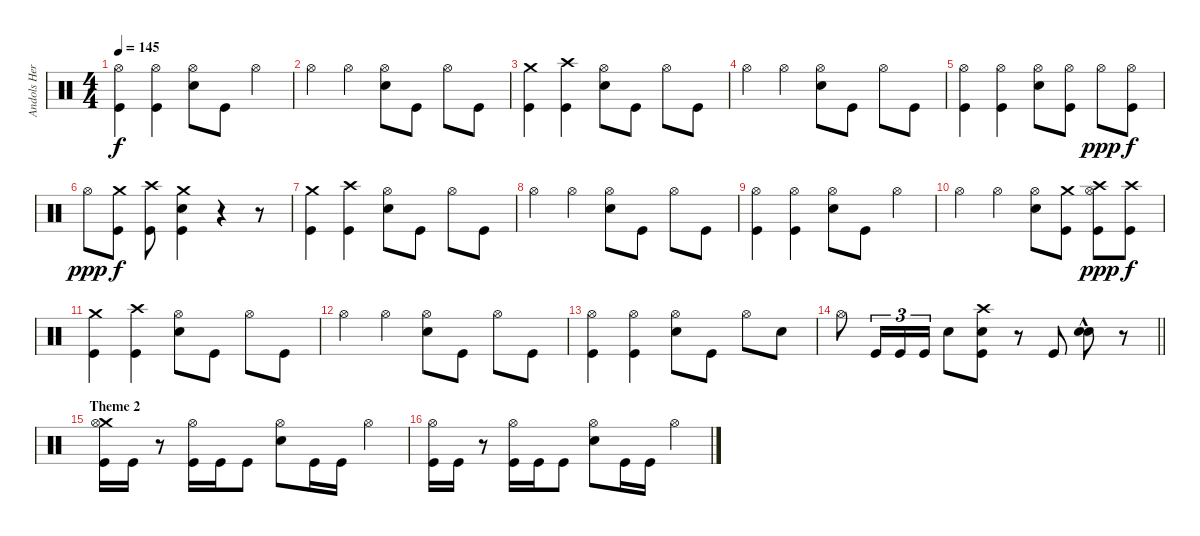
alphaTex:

\track ("Andols Herrick" "Andols Her") {instrument percussion}
\staff
\articulation defaults
\ts (4 4)
\tempo 145
\clef neutral
\ks c
("Hi-Hat (open)" "Kick (hit)").4{dy f} ("Hi-Hat (open)" "Kick (hit)").4 ("Hi-Hat (open)" "Electric Snare (hit)").8 "Kick (hit)".8 "Hi-Hat (open)".4 |
"Hi-Hat (open)".4 "Hi-Hat (open)".4 ("Hi-Hat (open)" "Electric Snare (hit)").8 "Kick (hit)".8 "Hi-Hat (open)".8 "Kick (hit)".8 |
("Crash medium (hit)" "Kick (hit)").4 ("Crash high (hit)" "Kick (hit)").4 ("Hi-Hat (open)" "Electric Snare (hit)").8 "Kick (hit)".8 "Hi-Hat (open)".8 "Kick (hit)".8 |
"Hi-Hat (open)".4 "Hi-Hat (open)".4 ("Hi-Hat (open)" "Electric Snare (hit)").8 "Kick (hit)".8 "Hi-Hat (open)".8 "Kick (hit)".8 |
("Hi-Hat (open)" "Kick (hit)").4 ("Hi-Hat (open)" "Kick (hit)").4 ("Hi-Hat (open)" "Electric Snare (hit)").8 ("Hi-Hat (open)" "Kick (hit)").8 "Hi-Hat (open)".8{dy ppp} ("Hi-Hat (open)" "Kick (hit)").8{dy f} |
"Hi-Hat (open)".8{dy ppp} ("Crash medium (hit)" "Kick (hit)").8{dy f} ("Crash high (hit)" "Kick (hit)").8 ("Crash medium (hit)" "Electric Snare (hit)" "Kick (hit)").4 r.4 r.8 |
("Crash medium (hit)" "Kick (hit)").4 ("Crash high (hit)" "Kick (hit)").4 ("Hi-Hat (open)" "Electric Snare (hit)").8 "Kick (hit)".8 "Hi-Hat (open)".8 "Kick (hit)".8 |
"Hi-Hat (open)".4 "Hi-Hat (open)".4 ("Hi-Hat (open)" "Electric Snare (hit)").8 "Kick (hit)".8 "Hi-Hat (open)".8 "Kick (hit)".8 |
("Hi-Hat (open)" "Kick (hit)").4 ("Hi-Hat (open)" "Kick (hit)").4 ("Hi-Hat (open)" "Electric Snare (hit)").8 "Kick (hit)".8 "Hi-Hat (open)".4 |
"Hi-Hat (open)".4 "Hi-Hat (open)".4 ("Hi-Hat (open)" "Electric Snare (hit)").8 ("Crash medium (hit)" "Kick (hit)").8 ("Crash high (hit)" "Hi-Hat (open)" "Kick (hit)").8{dy ppp} ("Crash high (hit)" "Kick (hit)").8{dy f} |
("Crash medium (hit)" "Kick (hit)").4 ("Crash high (hit)" "Kick (hit)").4 ("Hi-Hat (open)" "Electric Snare (hit)").8 "Kick (hit)".8 "Hi-Hat (open)".8 "Kick (hit)".8 |
"Hi-Hat (open)".4 "Hi-Hat (open)".4 ("Hi-Hat (open)" "Electric Snare (hit)").8 "Kick (hit)".8 "Hi-Hat (open)".8 "Kick (hit)".8 |
("Hi-Hat (open)" "Kick (hit)").4 ("Hi-Hat (open)" "Kick (hit)").4 ("Hi-Hat (open)" "Electric Snare (hit)").8 "Kick (hit)".8 "Hi-Hat (open)".8 "Electric Snare (hit)".8 |
\barLineRight lightlight "Hi-Hat (open)".8 "Kick (hit)".16{tu (3 2)} "Kick (hit)".16{tu (3 2)} "Kick (hit)".16{tu (3 2)} "Electric Snare (hit)".8
("Crash high (hit)" "Electric Snare (hit)" "Kick (hit)").8 r.8 "Kick (hit)".8 ("Electric Snare (hit)" "Electric Snare (hit)"{hac}).8 r.8 |
\section ("" "Theme 2")
("Crash medium (hit)" "Hi-Hat (open)" "Kick (hit)").16 "Kick (hit)".16 r.8 ("Hi-Hat (open)" "Kick (hit)").16 "Kick (hit)".16 "Kick (hit)".8 ("Hi-Hat (open)" "Electric Snare (hit)").8 "Kick (hit)".16 "Kick (hit)".16 "Hi-Hat (open)".4 |
("Hi-Hat (open)" "Kick (hit)").16 "Kick (hit)".16 r.8 ("Hi-Hat (open)" "Kick (hit)").16 "Kick (hit)".16 "Kick (hit)".8 ("Hi-Hat (open)" "Electric Snare (hit)").8 "Kick (hit)".16 "Kick (hit)".16 "Hi-Hat (open)".4
